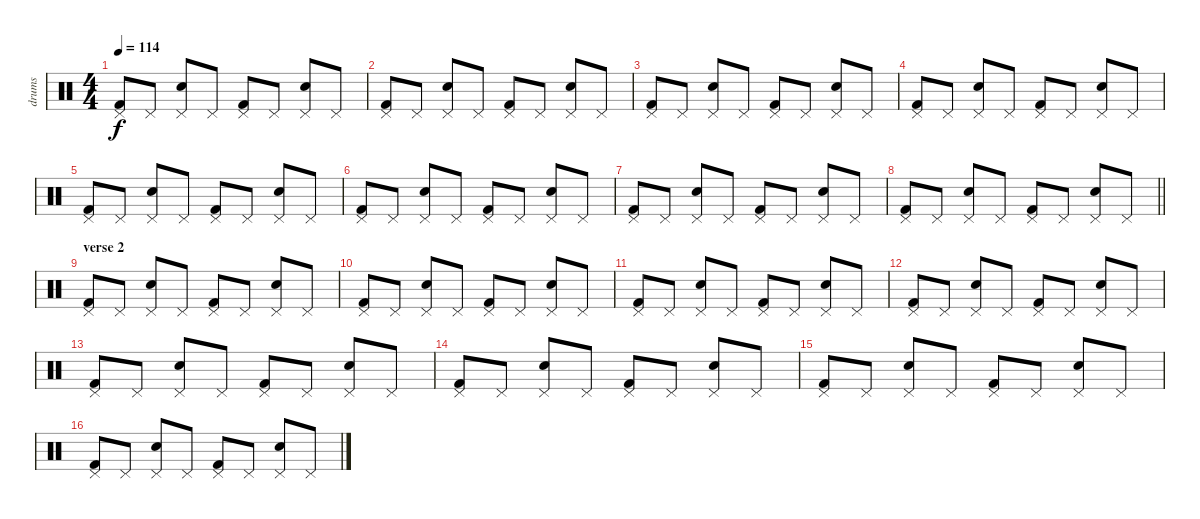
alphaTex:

\track ("drums" "drums") {instrument percussion}
\staff {score}
\articulation defaults
\ts (4 4)
\tempo 114
\clef neutral
\ks c
("Kick (hit) 2" "Pedal Hi-Hat (hit)").8{dy f} "Pedal Hi-Hat (hit)".8 ("Electric Snare (hit)" "Pedal Hi-Hat (hit)").8 "Pedal Hi-Hat (hit)".8 ("Kick (hit) 2" "Pedal Hi-Hat (hit)").8 "Pedal Hi-Hat (hit)".8 ("Electric Snare (hit)" "Pedal Hi-Hat (hit)").8 "Pedal Hi-Hat (hit)".8 |
("Kick (hit) 2" "Pedal Hi-Hat (hit)").8 "Pedal Hi-Hat (hit)".8 ("Electric Snare (hit)" "Pedal Hi-Hat (hit)").8 "Pedal Hi-Hat (hit)".8 ("Kick (hit) 2" "Pedal Hi-Hat (hit)").8 "Pedal Hi-Hat (hit)".8 ("Electric Snare (hit)" "Pedal Hi-Hat (hit)").8 "Pedal Hi-Hat (hit)".8 |
("Kick (hit) 2" "Pedal Hi-Hat (hit)").8 "Pedal Hi-Hat (hit)".8 ("Electric Snare (hit)" "Pedal Hi-Hat (hit)").8 "Pedal Hi-Hat (hit)".8 ("Kick (hit) 2" "Pedal Hi-Hat (hit)").8 "Pedal Hi-Hat (hit)".8 ("Electric Snare (hit)" "Pedal Hi-Hat (hit)").8 "Pedal Hi-Hat (hit)".8 |
("Kick (hit) 2" "Pedal Hi-Hat (hit)").8 "Pedal Hi-Hat (hit)".8 ("Electric Snare (hit)" "Pedal Hi-Hat (hit)").8 "Pedal Hi-Hat (hit)".8 ("Kick (hit) 2" "Pedal Hi-Hat (hit)").8 "Pedal Hi-Hat (hit)".8 ("Electric Snare (hit)" "Pedal Hi-Hat (hit)").8 "Pedal Hi-Hat (hit)".8 |
("Kick (hit) 2" "Pedal Hi-Hat (hit)").8 "Pedal Hi-Hat (hit)".8 ("Electric Snare (hit)" "Pedal Hi-Hat (hit)").8 "Pedal Hi-Hat (hit)".8 ("Kick (hit) 2" "Pedal Hi-Hat (hit)").8 "Pedal Hi-Hat (hit)".8 ("Electric Snare (hit)" "Pedal Hi-Hat (hit)").8 "Pedal Hi-Hat (hit)".8 |
("Kick (hit) 2" "Pedal Hi-Hat (hit)").8 "Pedal Hi-Hat (hit)".8 ("Electric Snare (hit)" "Pedal Hi-Hat (hit)").8 "Pedal Hi-Hat (hit)".8 ("Kick (hit) 2" "Pedal Hi-Hat (hit)").8 "Pedal Hi-Hat (hit)".8 ("Electric Snare (hit)" "Pedal Hi-Hat (hit)").8 "Pedal Hi-Hat (hit)".8 |
("Kick (hit) 2" "Pedal Hi-Hat (hit)").8 "Pedal Hi-Hat (hit)".8 ("Electric Snare (hit)" "Pedal Hi-Hat (hit)").8 "Pedal Hi-Hat (hit)".8 ("Kick (hit) 2" "Pedal Hi-Hat (hit)").8 "Pedal Hi-Hat (hit)".8 ("Electric Snare (hit)" "Pedal Hi-Hat (hit)").8 "Pedal Hi-Hat (hit)".8 |
\barLineRight lightlight
("Kick (hit) 2" "Pedal Hi-Hat (hit)").8 "Pedal Hi-Hat (hit)".8 ("Electric Snare (hit)" "Pedal Hi-Hat (hit)").8 "Pedal Hi-Hat (hit)".8 ("Kick (hit) 2" "Pedal Hi-Hat (hit)").8 "Pedal Hi-Hat (hit)".8 ("Electric Snare (hit)" "Pedal Hi-Hat (hit)").8 "Pedal Hi-Hat (hit)".8 |
\section ("" "verse 2")
("Kick (hit) 2" "Pedal Hi-Hat (hit)").8 "Pedal Hi-Hat (hit)".8 ("Electric Snare (hit)" "Pedal Hi-Hat (hit)").8 "Pedal Hi-Hat (hit)".8 ("Kick (hit) 2" "Pedal Hi-Hat (hit)").8 "Pedal Hi-Hat (hit)".8 ("Electric Snare (hit)" "Pedal Hi-Hat (hit)").8 "Pedal Hi-Hat (hit)".8 |
("Kick (hit) 2" "Pedal Hi-Hat (hit)").8 "Pedal Hi-Hat (hit)".8 ("Electric Snare (hit)" "Pedal Hi-Hat (hit)").8 "Pedal Hi-Hat (hit)".8 ("Kick (hit) 2" "Pedal Hi-Hat (hit)").8 "Pedal Hi-Hat (hit)".8 ("Electric Snare (hit)" "Pedal Hi-Hat (hit)").8 "Pedal Hi-Hat (hit)".8 |
("Kick (hit) 2" "Pedal Hi-Hat (hit)").8 "Pedal Hi-Hat (hit)".8 ("Electric Snare (hit)" "Pedal Hi-Hat (hit)").8 "Pedal Hi-Hat (hit)".8 ("Kick (hit) 2" "Pedal Hi-Hat (hit)").8 "Pedal Hi-Hat (hit)".8 ("Electric Snare (hit)" "Pedal Hi-Hat (hit)").8 "Pedal Hi-Hat (hit)".8 |
("Kick (hit) 2" "Pedal Hi-Hat (hit)").8 "Pedal Hi-Hat (hit)".8 ("Electric Snare (hit)" "Pedal Hi-Hat (hit)").8 "Pedal Hi-Hat (hit)".8 ("Kick (hit) 2" "Pedal Hi-Hat (hit)").8 "Pedal Hi-Hat (hit)".8 ("Electric Snare (hit)" "Pedal Hi-Hat (hit)").8 "Pedal Hi-Hat (hit)".8 |
("Kick (hit) 2" "Pedal Hi-Hat (hit)").8 "Pedal Hi-Hat (hit)".8 ("Electric Snare (hit)" "Pedal Hi-Hat (hit)").8 "Pedal Hi-Hat (hit)".8 ("Kick (hit) 2" "Pedal Hi-Hat (hit)").8 "Pedal Hi-Hat (hit)".8 ("Electric Snare (hit)" "Pedal Hi-Hat (hit)").8 "Pedal Hi-Hat (hit)".8 |
("Kick (hit) 2" "Pedal Hi-Hat (hit)").8 "Pedal Hi-Hat (hit)".8 ("Electric Snare (hit)" "Pedal Hi-Hat (hit)").8 "Pedal Hi-Hat (hit)".8 ("Kick (hit) 2" "Pedal Hi-Hat (hit)").8 "Pedal Hi-Hat (hit)".8 ("Electric Snare (hit)" "Pedal Hi-Hat (hit)").8 "Pedal Hi-Hat (hit)".8 |
("Kick (hit) 2" "Pedal Hi-Hat (hit)").8 "Pedal Hi-Hat (hit)".8 ("Electric Snare (hit)" "Pedal Hi-Hat (hit)").8 "Pedal Hi-Hat (hit)".8 ("Kick (hit) 2" "Pedal Hi-Hat (hit)").8 "Pedal Hi-Hat (hit)".8 ("Electric Snare (hit)" "Pedal Hi-Hat (hit)").8 "Pedal Hi-Hat (hit)".8 |
("Kick (hit) 2" "Pedal Hi-Hat (hit)").8 "Pedal Hi-Hat (hit)".8 ("Electric Snare (hit)" "Pedal Hi-Hat (hit)").8 "Pedal Hi-Hat (hit)".8 ("Kick (hit) 2" "Pedal Hi-Hat (hit)").8 "Pedal Hi-Hat (hit)".8 ("Electric Snare (hit)" "Pedal Hi-Hat (hit)").8 "Pedal Hi-Hat (hit)".8
